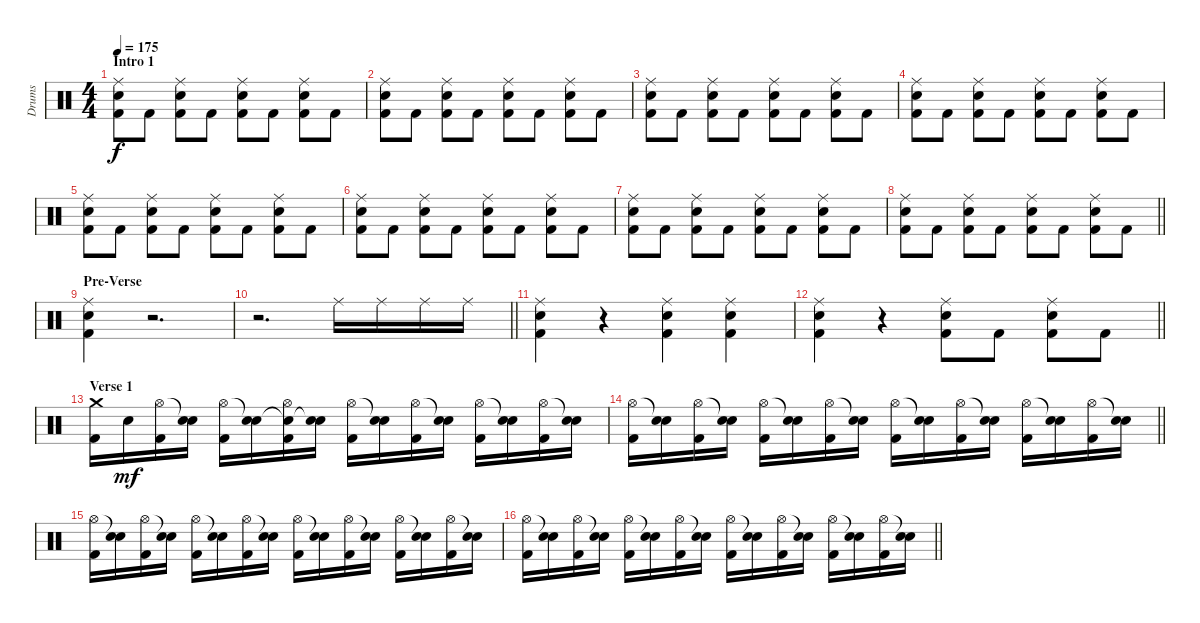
\track ("Drums" "Drums") {instrument percussion}
\staff {score}
\articulation defaults
\ts (4 4)
\section ("" "Intro 1")
\tempo 175
\clef neutral
\ks c
("Ride (middle)" "Snare (hit) 2" "Kick (hit) 2").8{dy f} "Kick (hit) 2".8 ("Ride (middle)" "Snare (hit) 2" "Kick (hit) 2").8 "Kick (hit) 2".8 ("Ride (middle)" "Snare (hit) 2" "Kick (hit) 2").8 "Kick (hit) 2".8 ("Ride (middle)" "Snare (hit) 2" "Kick (hit) 2").8 "Kick (hit) 2".8 |
("Ride (middle)" "Snare (hit) 2" "Kick (hit) 2").8 "Kick (hit) 2".8 ("Ride (middle)" "Snare (hit) 2" "Kick (hit) 2").8 "Kick (hit) 2".8 ("Ride (middle)" "Snare (hit) 2" "Kick (hit) 2").8 "Kick (hit) 2".8 ("Ride (middle)" "Snare (hit) 2" "Kick (hit) 2").8 "Kick (hit) 2".8 |
("Ride (middle)" "Snare (hit) 2" "Kick (hit) 2").8 "Kick (hit) 2".8 ("Ride (middle)" "Snare (hit) 2" "Kick (hit) 2").8 "Kick (hit) 2".8 ("Ride (middle)" "Snare (hit) 2" "Kick (hit) 2").8 "Kick (hit) 2".8 ("Ride (middle)" "Snare (hit) 2" "Kick (hit) 2").8 "Kick (hit) 2".8 |
("Ride (middle)" "Snare (hit) 2" "Kick (hit) 2").8 "Kick (hit) 2".8 ("Ride (middle)" "Snare (hit) 2" "Kick (hit) 2").8 "Kick (hit) 2".8 ("Ride (middle)" "Snare (hit) 2" "Kick (hit) 2").8 "Kick (hit) 2".8 ("Ride (middle)" "Snare (hit) 2" "Kick (hit) 2").8 "Kick (hit) 2".8 |
("Ride (middle)" "Snare (hit) 2" "Kick (hit) 2").8 "Kick (hit) 2".8 ("Ride (middle)" "Snare (hit) 2" "Kick (hit) 2").8 "Kick (hit) 2".8 ("Ride (middle)" "Snare (hit) 2" "Kick (hit) 2").8 "Kick (hit) 2".8 ("Ride (middle)" "Snare (hit) 2" "Kick (hit) 2").8 "Kick (hit) 2".8 |
("Ride (middle)" "Snare (hit) 2" "Kick (hit) 2").8 "Kick (hit) 2".8 ("Ride (middle)" "Snare (hit) 2" "Kick (hit) 2").8 "Kick (hit) 2".8 ("Ride (middle)" "Snare (hit) 2" "Kick (hit) 2").8 "Kick (hit) 2".8 ("Ride (middle)" "Snare (hit) 2" "Kick (hit) 2").8 "Kick (hit) 2".8 |
("Ride (middle)" "Snare (hit) 2" "Kick (hit) 2").8 "Kick (hit) 2".8 ("Ride (middle)" "Snare (hit) 2" "Kick (hit) 2").8 "Kick (hit) 2".8 ("Ride (middle)" "Snare (hit) 2" "Kick (hit) 2").8 "Kick (hit) 2".8 ("Ride (middle)" "Snare (hit) 2" "Kick (hit) 2").8 "Kick (hit) 2".8 |
\barLineRight lightlight
("Ride (middle)" "Snare (hit) 2" "Kick (hit) 2").8 "Kick (hit) 2".8 ("Ride (middle)" "Snare (hit) 2" "Kick (hit) 2").8 "Kick (hit) 2".8 ("Ride (middle)" "Snare (hit) 2" "Kick (hit) 2").8 "Kick (hit) 2".8 ("Ride (middle)" "Snare (hit) 2" "Kick (hit) 2").8 "Kick (hit) 2".8 |
\section ("" "Pre-Verse")
("Ride (middle)" "Snare (hit) 2" "Kick (hit) 2").4 r.2{d} |
\barLineRight lightlight
r.2{d} "Ride (middle)".16 "Ride (middle)".16 "Ride (middle)".16 "Ride (middle)".16 |
("Ride (middle)" "Snare (hit) 2" "Kick (hit) 2").4 r.4 ("Ride (middle)" "Snare (hit) 2" "Kick (hit) 2").4 ("Ride (middle)" "Snare (hit) 2" "Kick (hit) 2").4 |
\barLineRight lightlight
("Ride (middle)" "Snare (hit) 2" "Kick (hit) 2").4 r.4 ("Ride (middle)" "Snare (hit) 2" "Kick (hit) 2").8 "Kick (hit) 2".8 ("Ride (middle)" "Snare (hit) 2" "Kick (hit) 2").8 "Kick (hit) 2".8 |
\section ("" "Verse 1")
("Crash medium (hit)" "Kick (hit) 2").16 "Electric Snare (hit)".16{dy mf} ("Hi-Hat (open)" "Kick (hit) 2").16 ("Snare (hit)"{t} "Electric Snare (hit)").16 ("Hi-Hat (open)" "Kick (hit) 2").16 ("Snare (hit)"{t} "Electric Snare (hit)").16 ("Snare (hit)"{t} "Hi-Hat (open)" "Kick (hit) 2").16 ("Snare (hit)"{t} "Electric Snare (hit)").16 ("Hi-Hat (open)" "Kick (hit) 2").16 ("Snare (hit)"{t} "Electric Snare (hit)").16 ("Hi-Hat (open)" "Kick (hit) 2").16 ("Snare (hit)"{t} "Electric Snare (hit)").16 ("Hi-Hat (open)" "Kick (hit) 2").16 ("Snare (hit)"{t} "Electric Snare (hit)").16 ("Hi-Hat (open)" "Kick (hit) 2").16 ("Snare (hit)"{t} "Electric Snare (hit)").16 |
\barLineRight lightlight
("Hi-Hat (open)" "Kick (hit) 2").16 ("Snare (hit)"{t} "Electric Snare (hit)").16 ("Hi-Hat (open)" "Kick (hit) 2").16 ("Snare (hit)"{t} "Electric Snare (hit)").16 ("Hi-Hat (open)" "Kick (hit) 2").16 ("Snare (hit)"{t} "Electric Snare (hit)").16 ("Hi-Hat (open)" "Kick (hit) 2").16 ("Snare (hit)"{t} "Electric Snare (hit)").16 ("Hi-Hat (open)" "Kick (hit) 2").16 ("Snare (hit)"{t} "Electric Snare (hit)").16 ("Hi-Hat (open)" "Kick (hit) 2").16 ("Snare (hit)"{t} "Electric Snare (hit)").16 ("Hi-Hat (open)" "Kick (hit) 2").16 ("Snare (hit)"{t} "Electric Snare (hit)").16 ("Hi-Hat (open)" "Kick (hit) 2").16 ("Snare (hit)"{t} "Electric Snare (hit)").16 |
("Hi-Hat (open)" "Kick (hit) 2").16 ("Snare (hit)"{t} "Electric Snare (hit)").16 ("Hi-Hat (open)" "Kick (hit) 2").16 ("Snare (hit)"{t} "Electric Snare (hit)").16 ("Hi-Hat (open)" "Kick (hit) 2").16 ("Snare (hit)"{t} "Electric Snare (hit)").16 ("Hi-Hat (open)" "Kick (hit) 2").16 ("Snare (hit)"{t} "Electric Snare (hit)").16 ("Hi-Hat (open)" "Kick (hit) 2").16 ("Snare (hit)"{t} "Electric Snare (hit)").16 ("Hi-Hat (open)" "Kick (hit) 2").16 ("Snare (hit)"{t} "Electric Snare (hit)").16 ("Hi-Hat (open)" "Kick (hit) 2").16 ("Snare (hit)"{t} "Electric Snare (hit)").16 ("Hi-Hat (open)" "Kick (hit) 2").16 ("Snare (hit)"{t} "Electric Snare (hit)").16 |
\barLineRight lightlight
("Hi-Hat (open)" "Kick (hit) 2").16 ("Snare (hit)"{t} "Electric Snare (hit)").16 ("Hi-Hat (open)" "Kick (hit) 2").16 ("Snare (hit)"{t} "Electric Snare (hit)").16 ("Hi-Hat (open)" "Kick (hit) 2").16 ("Snare (hit)"{t} "Electric Snare (hit)").16 ("Hi-Hat (open)" "Kick (hit) 2").16 ("Snare (hit)"{t} "Electric Snare (hit)").16 ("Hi-Hat (open)" "Kick (hit) 2").16 ("Snare (hit)"{t} "Electric Snare (hit)").16 ("Hi-Hat (open)" "Kick (hit) 2").16 ("Snare (hit)"{t} "Electric Snare (hit)").16 ("Hi-Hat (open)" "Kick (hit) 2").16 ("Snare (hit)"{t} "Electric Snare (hit)").16 ("Hi-Hat (open)" "Kick (hit) 2").16 ("Snare (hit)"{t} "Electric Snare (hit)").16
